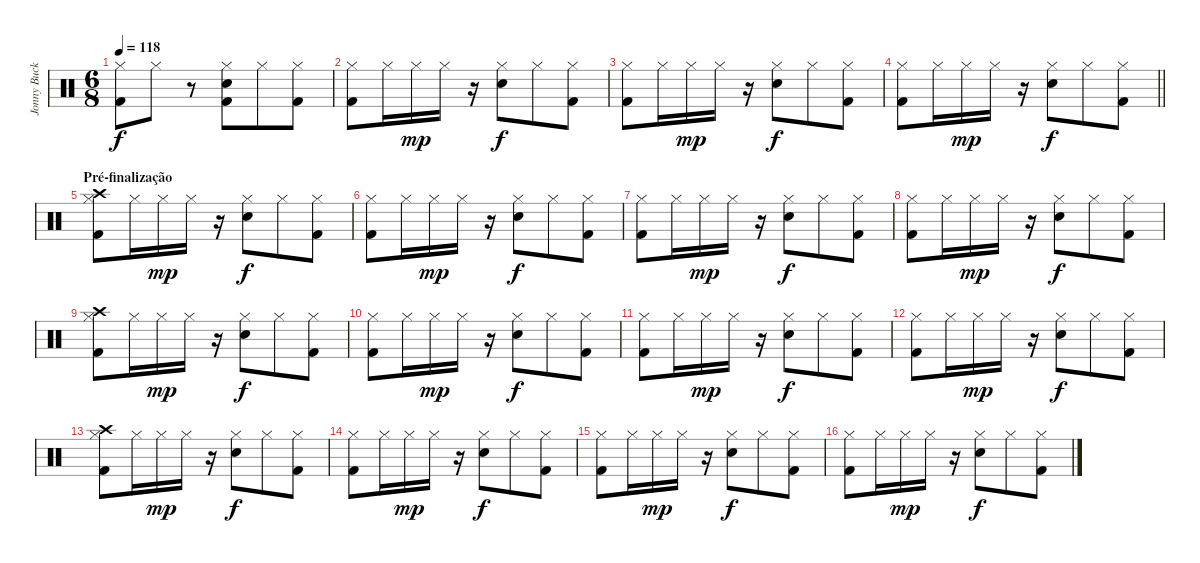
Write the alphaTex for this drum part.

\track ("Jonny Buckland (batera)" "Jonny Buck") {instrument percussion}
\staff {score}
\articulation defaults
\ts (6 8)
\tempo 118
\clef neutral
\ks c
("Hi-Hat (closed)" "Kick (hit) 2").8{dy f} "Hi-Hat (closed)".8 r.8 ("Hi-Hat (closed)" "Electric Snare (hit)" "Kick (hit) 2").8 "Hi-Hat (closed)".8 ("Hi-Hat (closed)" "Kick (hit) 2").8 |
("Hi-Hat (closed)" "Kick (hit) 2").8 "Hi-Hat (closed)".16 "Hi-Hat (closed)".16{dy mp} "Hi-Hat (closed)".16 r.16 ("Hi-Hat (closed)" "Electric Snare (hit)").8{dy f} "Hi-Hat (closed)".8 ("Hi-Hat (closed)" "Kick (hit) 2").8 |
("Hi-Hat (closed)" "Kick (hit) 2").8 "Hi-Hat (closed)".16 "Hi-Hat (closed)".16{dy mp} "Hi-Hat (closed)".16 r.16 ("Hi-Hat (closed)" "Electric Snare (hit)").8{dy f} "Hi-Hat (closed)".8 ("Hi-Hat (closed)" "Kick (hit) 2").8 |
\barLineRight lightlight
("Hi-Hat (closed)" "Kick (hit) 2").8 "Hi-Hat (closed)".16 "Hi-Hat (closed)".16{dy mp} "Hi-Hat (closed)".16 r.16 ("Hi-Hat (closed)" "Electric Snare (hit)").8{dy f} "Hi-Hat (closed)".8 ("Hi-Hat (closed)" "Kick (hit) 2").8 |
\section ("" "Pré-finalização")
("Crash high (hit)" "Hi-Hat (closed)" "Kick (hit) 2").8 "Hi-Hat (closed)".16 "Hi-Hat (closed)".16{dy mp} "Hi-Hat (closed)".16 r.16 ("Hi-Hat (closed)" "Electric Snare (hit)").8{dy f} "Hi-Hat (closed)".8 ("Hi-Hat (closed)" "Kick (hit) 2").8 |
("Hi-Hat (closed)" "Kick (hit) 2").8 "Hi-Hat (closed)".16 "Hi-Hat (closed)".16{dy mp} "Hi-Hat (closed)".16 r.16 ("Hi-Hat (closed)" "Electric Snare (hit)").8{dy f} "Hi-Hat (closed)".8 ("Hi-Hat (closed)" "Kick (hit) 2").8 |
("Hi-Hat (closed)" "Kick (hit) 2").8 "Hi-Hat (closed)".16 "Hi-Hat (closed)".16{dy mp} "Hi-Hat (closed)".16 r.16 ("Hi-Hat (closed)" "Electric Snare (hit)").8{dy f} "Hi-Hat (closed)".8 ("Hi-Hat (closed)" "Kick (hit) 2").8 |
("Hi-Hat (closed)" "Kick (hit) 2").8 "Hi-Hat (closed)".16 "Hi-Hat (closed)".16{dy mp} "Hi-Hat (closed)".16 r.16 ("Hi-Hat (closed)" "Electric Snare (hit)").8{dy f} "Hi-Hat (closed)".8 ("Hi-Hat (closed)" "Kick (hit) 2").8 |
("Crash high (hit)" "Hi-Hat (closed)" "Kick (hit) 2").8 "Hi-Hat (closed)".16 "Hi-Hat (closed)".16{dy mp} "Hi-Hat (closed)".16 r.16 ("Hi-Hat (closed)" "Electric Snare (hit)").8{dy f} "Hi-Hat (closed)".8 ("Hi-Hat (closed)" "Kick (hit) 2").8 |
("Hi-Hat (closed)" "Kick (hit) 2").8 "Hi-Hat (closed)".16 "Hi-Hat (closed)".16{dy mp} "Hi-Hat (closed)".16 r.16 ("Hi-Hat (closed)" "Electric Snare (hit)").8{dy f} "Hi-Hat (closed)".8 ("Hi-Hat (closed)" "Kick (hit) 2").8 |
("Hi-Hat (closed)" "Kick (hit) 2").8 "Hi-Hat (closed)".16 "Hi-Hat (closed)".16{dy mp} "Hi-Hat (closed)".16 r.16 ("Hi-Hat (closed)" "Electric Snare (hit)").8{dy f} "Hi-Hat (closed)".8 ("Hi-Hat (closed)" "Kick (hit) 2").8 |
("Hi-Hat (closed)" "Kick (hit) 2").8 "Hi-Hat (closed)".16 "Hi-Hat (closed)".16{dy mp} "Hi-Hat (closed)".16 r.16 ("Hi-Hat (closed)" "Electric Snare (hit)").8{dy f} "Hi-Hat (closed)".8 ("Hi-Hat (closed)" "Kick (hit) 2").8 |
("Crash high (hit)" "Hi-Hat (closed)" "Kick (hit) 2").8 "Hi-Hat (closed)".16 "Hi-Hat (closed)".16{dy mp} "Hi-Hat (closed)".16 r.16 ("Hi-Hat (closed)" "Electric Snare (hit)").8{dy f} "Hi-Hat (closed)".8 ("Hi-Hat (closed)" "Kick (hit) 2").8 |
("Hi-Hat (closed)" "Kick (hit) 2").8 "Hi-Hat (closed)".16 "Hi-Hat (closed)".16{dy mp} "Hi-Hat (closed)".16 r.16 ("Hi-Hat (closed)" "Electric Snare (hit)").8{dy f} "Hi-Hat (closed)".8 ("Hi-Hat (closed)" "Kick (hit) 2").8 |
("Hi-Hat (closed)" "Kick (hit) 2").8 "Hi-Hat (closed)".16 "Hi-Hat (closed)".16{dy mp} "Hi-Hat (closed)".16 r.16 ("Hi-Hat (closed)" "Electric Snare (hit)").8{dy f} "Hi-Hat (closed)".8 ("Hi-Hat (closed)" "Kick (hit) 2").8 |
("Hi-Hat (closed)" "Kick (hit) 2").8 "Hi-Hat (closed)".16 "Hi-Hat (closed)".16{dy mp} "Hi-Hat (closed)".16 r.16 ("Hi-Hat (closed)" "Electric Snare (hit)").8{dy f} "Hi-Hat (closed)".8 ("Hi-Hat (closed)" "Kick (hit) 2").8
